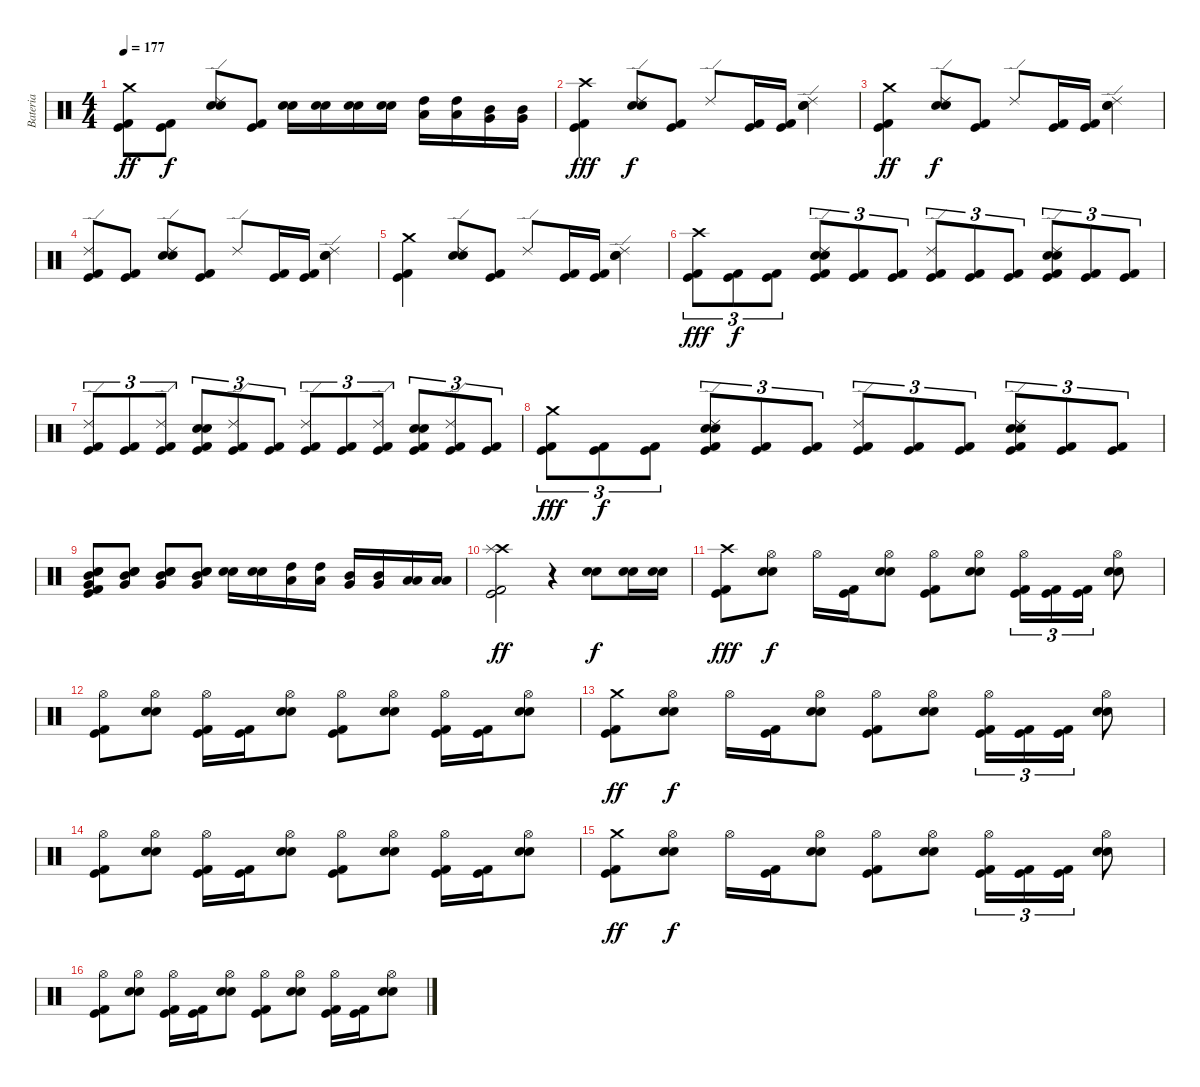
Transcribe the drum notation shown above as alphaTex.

\track ("Bateria" "Bateria") {instrument percussion}
\staff {score}
\articulation defaults
\ts (4 4)
\tempo 177
\clef neutral
\ks c
("Crash medium (hit)" "Kick (hit) 2" "Kick (hit)").8{dy ff} ("Kick (hit) 2" "Kick (hit)").8{dy f} ("Ride (edge) 2" "Electric Snare (hit)" "Snare (hit) 2").8 ("Kick (hit) 2" "Kick (hit)").8 ("Electric Snare (hit)" "Snare (hit) 2").16 ("Electric Snare (hit)" "Snare (hit) 2").16 ("Electric Snare (hit)" "Snare (hit) 2").16 ("Electric Snare (hit)" "Snare (hit) 2").16 ("High Tom (hit)" "Low Tom (hit)").16 ("High Tom (hit)" "Low Tom (hit)").16 ("Mid Tom (hit)" "Very Low Tom (hit)").16 ("Mid Tom (hit)" "Very Low Tom (hit)").16 |
("Crash high (hit)" "Kick (hit) 2" "Kick (hit)").4{dy fff} ("Ride (edge) 2" "Electric Snare (hit)" "Snare (hit) 2").8{dy f} ("Kick (hit) 2" "Kick (hit)").8 "Ride (edge) 2".8 ("Kick (hit) 2" "Kick (hit)").16 ("Kick (hit) 2" "Kick (hit)").16 ("Ride (edge) 2" "Electric Snare (hit)" "Snare (hit) 2").4 |
("Crash medium (hit)" "Kick (hit) 2" "Kick (hit)").4{dy ff} ("Ride (edge) 2" "Electric Snare (hit)" "Snare (hit) 2").8{dy f} ("Kick (hit) 2" "Kick (hit)").8 "Ride (edge) 2".8 ("Kick (hit) 2" "Kick (hit)").16 ("Kick (hit) 2" "Kick (hit)").16 ("Ride (edge) 2" "Electric Snare (hit)" "Snare (hit) 2").4 |
("Ride (edge) 2" "Kick (hit) 2" "Kick (hit)").8 ("Kick (hit) 2" "Kick (hit)").8 ("Ride (edge) 2" "Electric Snare (hit)" "Snare (hit) 2").8 ("Kick (hit) 2" "Kick (hit)").8 "Ride (edge) 2".8 ("Kick (hit) 2" "Kick (hit)").16 ("Kick (hit) 2" "Kick (hit)").16 ("Ride (edge) 2" "Electric Snare (hit)" "Snare (hit) 2").4 |
("Crash medium (hit)" "Kick (hit) 2" "Kick (hit)").4 ("Ride (edge) 2" "Electric Snare (hit)" "Snare (hit) 2").8 ("Kick (hit) 2" "Kick (hit)").8 "Ride (edge) 2".8 ("Kick (hit) 2" "Kick (hit)").16 ("Kick (hit) 2" "Kick (hit)").16 ("Ride (edge) 2" "Electric Snare (hit)" "Snare (hit) 2").4 |
("Crash high (hit)" "Kick (hit) 2" "Kick (hit)").8{tu (3 2) dy fff} ("Kick (hit) 2" "Kick (hit)").8{tu (3 2) dy f} ("Kick (hit) 2" "Kick (hit)").8{tu (3 2)} ("Ride (edge) 2" "Electric Snare (hit)" "Snare (hit) 2" "Kick (hit) 2" "Kick (hit)").8{tu (3 2)} ("Kick (hit) 2" "Kick (hit)").8{tu (3 2)} ("Kick (hit) 2" "Kick (hit)").8{tu (3 2)} ("Ride (edge) 2" "Kick (hit) 2" "Kick (hit)").8{tu (3 2)} ("Kick (hit) 2" "Kick (hit)").8{tu (3 2)} ("Kick (hit) 2" "Kick (hit)").8{tu (3 2)} ("Ride (edge) 2" "Electric Snare (hit)" "Snare (hit) 2" "Kick (hit) 2" "Kick (hit)").8{tu (3 2)} ("Kick (hit) 2" "Kick (hit)").8{tu (3 2)} ("Kick (hit) 2" "Kick (hit)").8{tu (3 2)} |
("Ride (edge) 2" "Kick (hit) 2" "Kick (hit)").8{tu (3 2)} ("Kick (hit) 2" "Kick (hit)").8{tu (3 2)} ("Ride (edge) 2" "Kick (hit) 2" "Kick (hit)").8{tu (3 2)} ("Electric Snare (hit)" "Snare (hit) 2" "Kick (hit) 2" "Kick (hit)").8{tu (3 2)} ("Ride (edge) 2" "Kick (hit) 2" "Kick (hit)").8{tu (3 2)} ("Kick (hit) 2" "Kick (hit)").8{tu (3 2)} ("Ride (edge) 2" "Kick (hit) 2" "Kick (hit)").8{tu (3 2)} ("Kick (hit) 2" "Kick (hit)").8{tu (3 2)} ("Ride (edge) 2" "Kick (hit) 2" "Kick (hit)").8{tu (3 2)} ("Electric Snare (hit)" "Snare (hit) 2" "Kick (hit) 2" "Kick (hit)").8{tu (3 2)} ("Ride (edge) 2" "Kick (hit) 2" "Kick (hit)").8{tu (3 2)} ("Kick (hit) 2" "Kick (hit)").8{tu (3 2)} |
("Crash medium (hit)" "Kick (hit) 2" "Kick (hit)").8{tu (3 2) dy fff} ("Kick (hit) 2" "Kick (hit)").8{tu (3 2) dy f} ("Kick (hit) 2" "Kick (hit)").8{tu (3 2)} ("Ride (edge) 2" "Electric Snare (hit)" "Snare (hit) 2" "Kick (hit) 2" "Kick (hit)").8{tu (3 2)} ("Kick (hit) 2" "Kick (hit)").8{tu (3 2)} ("Kick (hit) 2" "Kick (hit)").8{tu (3 2)} ("Ride (edge) 2" "Kick (hit) 2" "Kick (hit)").8{tu (3 2)} ("Kick (hit) 2" "Kick (hit)").8{tu (3 2)} ("Kick (hit) 2" "Kick (hit)").8{tu (3 2)} ("Ride (edge) 2" "Electric Snare (hit)" "Snare (hit) 2" "Kick (hit) 2" "Kick (hit)").8{tu (3 2)} ("Kick (hit) 2" "Kick (hit)").8{tu (3 2)} ("Kick (hit) 2" "Kick (hit)").8{tu (3 2)} |
("Electric Snare (hit)" "Snare (hit) 2" "Mid Tom (hit)" "Very Low Tom (hit)" "Kick (hit) 2" "Kick (hit)").8 ("Electric Snare (hit)" "Snare (hit) 2" "Mid Tom (hit)" "Very Low Tom (hit)").8 ("Electric Snare (hit)" "Snare (hit) 2" "Mid Tom (hit)" "Very Low Tom (hit)").8 ("Electric Snare (hit)" "Snare (hit) 2" "Mid Tom (hit)" "Very Low Tom (hit)").8 ("Electric Snare (hit)" "Snare (hit) 2").16 ("Electric Snare (hit)" "Snare (hit) 2").16 ("High Tom (hit)" "Low Tom (hit)").16 ("High Tom (hit)" "Low Tom (hit)").16 ("Mid Tom (hit)" "Very Low Tom (hit)").16 ("Mid Tom (hit)" "Very Low Tom (hit)").16 ("Low Tom (hit)" "Low Floor Tom (hit)").16 ("Low Tom (hit)" "Low Floor Tom (hit)").16 |
("Crash high (hit)" "Splash (hit)" "Kick (hit) 2" "Kick (hit)").2{dy ff} r.4 ("Electric Snare (hit)" "Snare (hit) 2").8{dy f} ("Electric Snare (hit)" "Snare (hit) 2").16 ("Electric Snare (hit)" "Snare (hit) 2").16 |
("Crash high (hit)" "Kick (hit) 2" "Kick (hit)").8{dy fff} ("Hi-Hat (open)" "Electric Snare (hit)" "Snare (hit) 2").8{dy f} "Hi-Hat (open)".16 ("Kick (hit) 2" "Kick (hit)").16 ("Hi-Hat (open)" "Electric Snare (hit)" "Snare (hit) 2").8 ("Hi-Hat (open)" "Kick (hit) 2" "Kick (hit)").8 ("Hi-Hat (open)" "Electric Snare (hit)" "Snare (hit) 2").8 ("Hi-Hat (open)" "Kick (hit) 2" "Kick (hit)").16{tu (3 2)} ("Kick (hit) 2" "Kick (hit)").16{tu (3 2)} ("Kick (hit) 2" "Kick (hit)").16{tu (3 2)} ("Hi-Hat (open)" "Electric Snare (hit)" "Snare (hit) 2").8 |
("Hi-Hat (open)" "Kick (hit) 2" "Kick (hit)").8 ("Hi-Hat (open)" "Electric Snare (hit)" "Snare (hit) 2").8 ("Hi-Hat (open)" "Kick (hit) 2" "Kick (hit)").16 ("Kick (hit) 2" "Kick (hit)").16 ("Hi-Hat (open)" "Electric Snare (hit)" "Snare (hit) 2").8 ("Hi-Hat (open)" "Kick (hit) 2" "Kick (hit)").8 ("Hi-Hat (open)" "Electric Snare (hit)" "Snare (hit) 2").8 ("Hi-Hat (open)" "Kick (hit) 2" "Kick (hit)").16 ("Kick (hit) 2" "Kick (hit)").16 ("Hi-Hat (open)" "Electric Snare (hit)" "Snare (hit) 2").8 |
("Crash medium (hit)" "Kick (hit) 2" "Kick (hit)").8{dy ff} ("Hi-Hat (open)" "Electric Snare (hit)" "Snare (hit) 2").8{dy f} "Hi-Hat (open)".16 ("Kick (hit) 2" "Kick (hit)").16 ("Hi-Hat (open)" "Electric Snare (hit)" "Snare (hit) 2").8 ("Hi-Hat (open)" "Kick (hit) 2" "Kick (hit)").8 ("Hi-Hat (open)" "Electric Snare (hit)" "Snare (hit) 2").8 ("Hi-Hat (open)" "Kick (hit) 2" "Kick (hit)").16{tu (3 2)} ("Kick (hit) 2" "Kick (hit)").16{tu (3 2)} ("Kick (hit) 2" "Kick (hit)").16{tu (3 2)} ("Hi-Hat (open)" "Electric Snare (hit)" "Snare (hit) 2").8 |
("Hi-Hat (open)" "Kick (hit) 2" "Kick (hit)").8 ("Hi-Hat (open)" "Electric Snare (hit)" "Snare (hit) 2").8 ("Hi-Hat (open)" "Kick (hit) 2" "Kick (hit)").16 ("Kick (hit) 2" "Kick (hit)").16 ("Hi-Hat (open)" "Electric Snare (hit)" "Snare (hit) 2").8 ("Hi-Hat (open)" "Kick (hit) 2" "Kick (hit)").8 ("Hi-Hat (open)" "Electric Snare (hit)" "Snare (hit) 2").8 ("Hi-Hat (open)" "Kick (hit) 2" "Kick (hit)").16 ("Kick (hit) 2" "Kick (hit)").16 ("Hi-Hat (open)" "Electric Snare (hit)" "Snare (hit) 2").8 |
("Crash medium (hit)" "Kick (hit) 2" "Kick (hit)").8{dy ff} ("Hi-Hat (open)" "Electric Snare (hit)" "Snare (hit) 2").8{dy f} "Hi-Hat (open)".16 ("Kick (hit) 2" "Kick (hit)").16 ("Hi-Hat (open)" "Electric Snare (hit)" "Snare (hit) 2").8 ("Hi-Hat (open)" "Kick (hit) 2" "Kick (hit)").8 ("Hi-Hat (open)" "Electric Snare (hit)" "Snare (hit) 2").8 ("Hi-Hat (open)" "Kick (hit) 2" "Kick (hit)").16{tu (3 2)} ("Kick (hit) 2" "Kick (hit)").16{tu (3 2)} ("Kick (hit) 2" "Kick (hit)").16{tu (3 2)} ("Hi-Hat (open)" "Electric Snare (hit)" "Snare (hit) 2").8 |
("Hi-Hat (open)" "Kick (hit) 2" "Kick (hit)").8 ("Hi-Hat (open)" "Electric Snare (hit)" "Snare (hit) 2").8 ("Hi-Hat (open)" "Kick (hit) 2" "Kick (hit)").16 ("Kick (hit) 2" "Kick (hit)").16 ("Hi-Hat (open)" "Electric Snare (hit)" "Snare (hit) 2").8 ("Hi-Hat (open)" "Kick (hit) 2" "Kick (hit)").8 ("Hi-Hat (open)" "Electric Snare (hit)" "Snare (hit) 2").8 ("Hi-Hat (open)" "Kick (hit) 2" "Kick (hit)").16 ("Kick (hit) 2" "Kick (hit)").16 ("Hi-Hat (open)" "Electric Snare (hit)" "Snare (hit) 2").8
